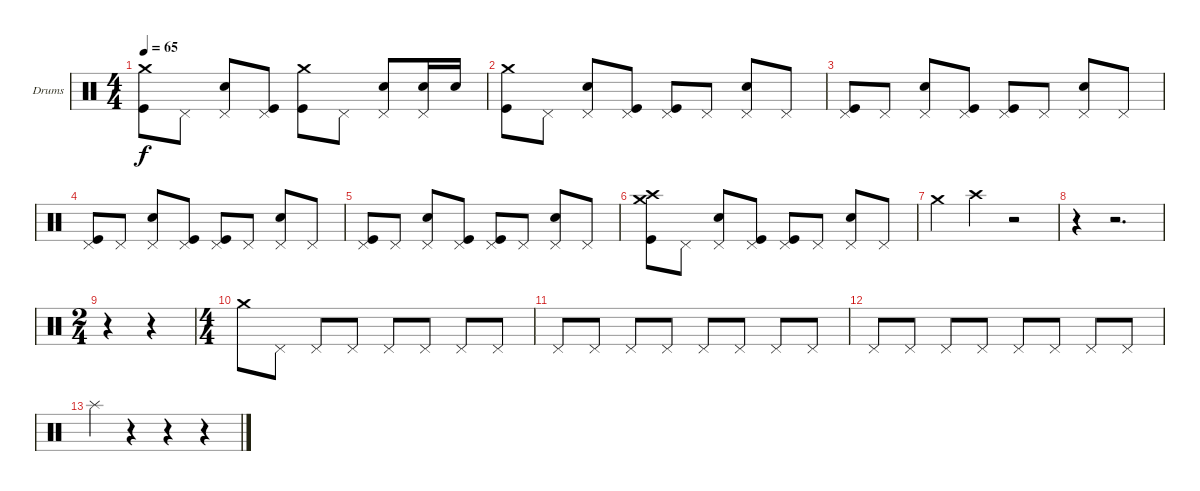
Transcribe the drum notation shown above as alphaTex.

\bracketExtendMode groupsimilarinstruments
\firstSystemTrackNameOrientation horizontal
\otherSystemsTrackNameOrientation horizontal
\track ("Drumkit" "Drums") {instrument percussion}
\staff {score}
\articulation defaults
\ts (4 4)
\tempo 65
\clef neutral
\ks c
("Crash medium (hit)" "Kick (hit)").8{dy f} "Pedal Hi-Hat (hit)".8 ("Pedal Hi-Hat (hit)" "Snare (hit) 2").8 ("Pedal Hi-Hat (hit)" "Kick (hit)").8 ("Crash medium (hit)" "Kick (hit)").8 "Pedal Hi-Hat (hit)".8 ("Pedal Hi-Hat (hit)" "Snare (hit) 2").8 ("Pedal Hi-Hat (hit)" "Snare (hit) 2").16 "Snare (hit) 2".16 |
("Crash medium (hit)" "Kick (hit)").8 "Pedal Hi-Hat (hit)".8 ("Pedal Hi-Hat (hit)" "Snare (hit) 2").8 ("Pedal Hi-Hat (hit)" "Kick (hit)").8 ("Pedal Hi-Hat (hit)" "Kick (hit)").8 "Pedal Hi-Hat (hit)".8 ("Pedal Hi-Hat (hit)" "Snare (hit) 2").8 "Pedal Hi-Hat (hit)".8 |
("Pedal Hi-Hat (hit)" "Kick (hit)").8 "Pedal Hi-Hat (hit)".8 ("Pedal Hi-Hat (hit)" "Snare (hit) 2").8 ("Pedal Hi-Hat (hit)" "Kick (hit)").8 ("Pedal Hi-Hat (hit)" "Kick (hit)").8 "Pedal Hi-Hat (hit)".8 ("Pedal Hi-Hat (hit)" "Snare (hit) 2").8 "Pedal Hi-Hat (hit)".8 |
("Pedal Hi-Hat (hit)" "Kick (hit)").8 "Pedal Hi-Hat (hit)".8 ("Pedal Hi-Hat (hit)" "Snare (hit) 2").8 ("Pedal Hi-Hat (hit)" "Kick (hit)").8 ("Pedal Hi-Hat (hit)" "Kick (hit)").8 "Pedal Hi-Hat (hit)".8 ("Pedal Hi-Hat (hit)" "Snare (hit) 2").8 "Pedal Hi-Hat (hit)".8 |
("Pedal Hi-Hat (hit)" "Kick (hit)").8 "Pedal Hi-Hat (hit)".8 ("Pedal Hi-Hat (hit)" "Snare (hit) 2").8 ("Pedal Hi-Hat (hit)" "Kick (hit)").8 ("Pedal Hi-Hat (hit)" "Kick (hit)").8 "Pedal Hi-Hat (hit)".8 ("Pedal Hi-Hat (hit)" "Snare (hit) 2").8 "Pedal Hi-Hat (hit)".8 |
("Crash medium (hit)" "Crash high (hit)" "Kick (hit)").8 "Pedal Hi-Hat (hit)".8 ("Pedal Hi-Hat (hit)" "Snare (hit) 2").8 ("Pedal Hi-Hat (hit)" "Kick (hit)").8 ("Pedal Hi-Hat (hit)" "Kick (hit)").8 "Pedal Hi-Hat (hit)".8 ("Pedal Hi-Hat (hit)" "Snare (hit) 2").8 "Pedal Hi-Hat (hit)".8 |
"Crash medium (hit)".4 "Crash high (hit)".4 r.2 |
r.4 r.2{d} |
\ts (2 4)
r.4 r.4 |
\ts (4 4)
"Crash medium (hit)".8 "Pedal Hi-Hat (hit)".8 "Pedal Hi-Hat (hit)".8 "Pedal Hi-Hat (hit)".8 "Pedal Hi-Hat (hit)".8 "Pedal Hi-Hat (hit)".8 "Pedal Hi-Hat (hit)".8 "Pedal Hi-Hat (hit)".8 |
"Pedal Hi-Hat (hit)".8 "Pedal Hi-Hat (hit)".8 "Pedal Hi-Hat (hit)".8 "Pedal Hi-Hat (hit)".8 "Pedal Hi-Hat (hit)".8 "Pedal Hi-Hat (hit)".8 "Pedal Hi-Hat (hit)".8 "Pedal Hi-Hat (hit)".8 |
"Pedal Hi-Hat (hit)".8 "Pedal Hi-Hat (hit)".8 "Pedal Hi-Hat (hit)".8 "Pedal Hi-Hat (hit)".8 "Pedal Hi-Hat (hit)".8 "Pedal Hi-Hat (hit)".8 "Pedal Hi-Hat (hit)".8 "Pedal Hi-Hat (hit)".8 |
"Splash (hit)".4 r.4 r.4 r.4
